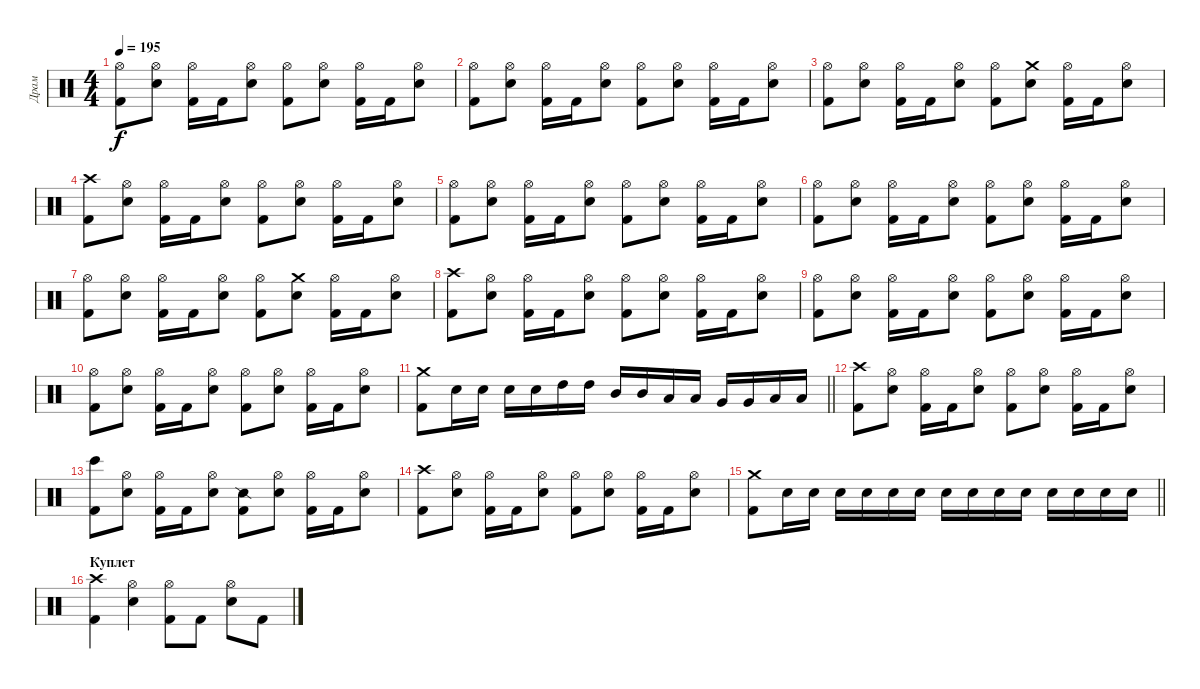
\track ("Драм" "Драм") {instrument percussion}
\staff {score}
\articulation defaults
\ts (4 4)
\tempo 195
\clef neutral
\ks c
("Hi-Hat (open)" "Kick (hit) 2").8{dy f} ("Hi-Hat (open)" "Snare (hit) 2").8 ("Hi-Hat (open)" "Kick (hit) 2").16 "Kick (hit) 2".16 ("Hi-Hat (open)" "Snare (hit) 2").8 ("Hi-Hat (open)" "Kick (hit) 2").8 ("Hi-Hat (open)" "Snare (hit) 2").8 ("Hi-Hat (open)" "Kick (hit) 2").16 "Kick (hit) 2".16 ("Hi-Hat (open)" "Snare (hit) 2").8 |
("Hi-Hat (open)" "Kick (hit) 2").8 ("Hi-Hat (open)" "Snare (hit) 2").8 ("Hi-Hat (open)" "Kick (hit) 2").16 "Kick (hit) 2".16 ("Hi-Hat (open)" "Snare (hit) 2").8 ("Hi-Hat (open)" "Kick (hit) 2").8 ("Hi-Hat (open)" "Snare (hit) 2").8 ("Hi-Hat (open)" "Kick (hit) 2").16 "Kick (hit) 2".16 ("Hi-Hat (open)" "Snare (hit) 2").8 |
("Hi-Hat (open)" "Kick (hit) 2").8 ("Hi-Hat (open)" "Snare (hit) 2").8 ("Hi-Hat (open)" "Kick (hit) 2").16 "Kick (hit) 2".16 ("Hi-Hat (open)" "Snare (hit) 2").8 ("Hi-Hat (open)" "Kick (hit) 2").8 ("Snare (hit) 2" "Crash medium (hit)").8 ("Hi-Hat (open)" "Kick (hit) 2").16 "Kick (hit) 2".16 ("Hi-Hat (open)" "Snare (hit) 2").8 |
("Kick (hit) 2" "Crash high (hit)").8 ("Hi-Hat (open)" "Snare (hit) 2").8 ("Hi-Hat (open)" "Kick (hit) 2").16 "Kick (hit) 2".16 ("Hi-Hat (open)" "Snare (hit) 2").8 ("Hi-Hat (open)" "Kick (hit) 2").8 ("Hi-Hat (open)" "Snare (hit) 2").8 ("Hi-Hat (open)" "Kick (hit) 2").16 "Kick (hit) 2".16 ("Hi-Hat (open)" "Snare (hit) 2").8 |
("Hi-Hat (open)" "Kick (hit) 2").8 ("Hi-Hat (open)" "Snare (hit) 2").8 ("Hi-Hat (open)" "Kick (hit) 2").16 "Kick (hit) 2".16 ("Hi-Hat (open)" "Snare (hit) 2").8 ("Hi-Hat (open)" "Kick (hit) 2").8 ("Hi-Hat (open)" "Snare (hit) 2").8 ("Hi-Hat (open)" "Kick (hit) 2").16 "Kick (hit) 2".16 ("Hi-Hat (open)" "Snare (hit) 2").8 |
("Hi-Hat (open)" "Kick (hit) 2").8 ("Hi-Hat (open)" "Snare (hit) 2").8 ("Hi-Hat (open)" "Kick (hit) 2").16 "Kick (hit) 2".16 ("Hi-Hat (open)" "Snare (hit) 2").8 ("Hi-Hat (open)" "Kick (hit) 2").8 ("Hi-Hat (open)" "Snare (hit) 2").8 ("Hi-Hat (open)" "Kick (hit) 2").16 "Kick (hit) 2".16 ("Hi-Hat (open)" "Snare (hit) 2").8 |
("Hi-Hat (open)" "Kick (hit) 2").8 ("Hi-Hat (open)" "Snare (hit) 2").8 ("Hi-Hat (open)" "Kick (hit) 2").16 "Kick (hit) 2".16 ("Hi-Hat (open)" "Snare (hit) 2").8 ("Hi-Hat (open)" "Kick (hit) 2").8 ("Snare (hit) 2" "Crash medium (hit)").8 ("Hi-Hat (open)" "Kick (hit) 2").16 "Kick (hit) 2".16 ("Hi-Hat (open)" "Snare (hit) 2").8 |
("Kick (hit) 2" "Crash high (hit)").8 ("Hi-Hat (open)" "Snare (hit) 2").8 ("Hi-Hat (open)" "Kick (hit) 2").16 "Kick (hit) 2".16 ("Hi-Hat (open)" "Snare (hit) 2").8 ("Hi-Hat (open)" "Kick (hit) 2").8 ("Hi-Hat (open)" "Snare (hit) 2").8 ("Hi-Hat (open)" "Kick (hit) 2").16 "Kick (hit) 2".16 ("Hi-Hat (open)" "Snare (hit) 2").8 |
("Hi-Hat (open)" "Kick (hit) 2").8 ("Hi-Hat (open)" "Snare (hit) 2").8 ("Hi-Hat (open)" "Kick (hit) 2").16 "Kick (hit) 2".16 ("Hi-Hat (open)" "Snare (hit) 2").8 ("Hi-Hat (open)" "Kick (hit) 2").8 ("Hi-Hat (open)" "Snare (hit) 2").8 ("Hi-Hat (open)" "Kick (hit) 2").16 "Kick (hit) 2".16 ("Hi-Hat (open)" "Snare (hit) 2").8 |
("Hi-Hat (open)" "Kick (hit) 2").8 ("Hi-Hat (open)" "Snare (hit) 2").8 ("Hi-Hat (open)" "Kick (hit) 2").16 "Kick (hit) 2".16 ("Hi-Hat (open)" "Snare (hit) 2").8 ("Hi-Hat (open)" "Kick (hit) 2").8 ("Hi-Hat (open)" "Snare (hit) 2").8 ("Hi-Hat (open)" "Kick (hit) 2").16 "Kick (hit) 2".16 ("Hi-Hat (open)" "Snare (hit) 2").8 |
\barLineRight lightlight
("Kick (hit) 2" "Crash medium (hit)").8 "Snare (hit) 2".16 "Snare (hit) 2".16 "Snare (hit) 2".16 "Snare (hit) 2".16 "High Tom (hit)".16 "High Tom (hit)".16 "Mid Tom (hit)".16 "Mid Tom (hit)".16 "Low Tom (hit)".16 "Low Tom (hit)".16 "Very Low Tom (hit)".16 "Very Low Tom (hit)".16 "Low Floor Tom (hit)".16 "Low Floor Tom (hit)".16 |
("Kick (hit) 2" "Crash high (hit)").8 ("Hi-Hat (open)" "Snare (hit) 2").8 ("Hi-Hat (open)" "Kick (hit) 2").16 "Kick (hit) 2".16 ("Hi-Hat (open)" "Snare (hit) 2").8 ("Hi-Hat (open)" "Kick (hit) 2").8 ("Hi-Hat (open)" "Snare (hit) 2").8 ("Hi-Hat (open)" "Kick (hit) 2").16 "Kick (hit) 2".16 ("Hi-Hat (open)" "Snare (hit) 2").8 |
("Kick (hit) 2" "Bongo High (hit)").8 ("Hi-Hat (open)" "Snare (hit) 2").8 ("Hi-Hat (open)" "Kick (hit) 2").16 "Kick (hit) 2".16 ("Hi-Hat (open)" "Snare (hit) 2").8 ("Kick (hit) 2" "Snare (side stick) 2").8 ("Hi-Hat (open)" "Snare (hit) 2").8 ("Hi-Hat (open)" "Kick (hit) 2").16 "Kick (hit) 2".16 ("Hi-Hat (open)" "Snare (hit) 2").8 |
("Kick (hit) 2" "Crash high (hit)").8 ("Hi-Hat (open)" "Snare (hit) 2").8 ("Hi-Hat (open)" "Kick (hit) 2").16 "Kick (hit) 2".16 ("Hi-Hat (open)" "Snare (hit) 2").8 ("Hi-Hat (open)" "Kick (hit) 2").8 ("Hi-Hat (open)" "Snare (hit) 2").8 ("Hi-Hat (open)" "Kick (hit) 2").16 "Kick (hit) 2".16 ("Hi-Hat (open)" "Snare (hit) 2").8 |
\barLineRight lightlight
("Kick (hit) 2" "Crash medium (hit)").8 "Snare (hit) 2".16 "Snare (hit) 2".16 "Snare (hit) 2".16 "Snare (hit) 2".16 "Snare (hit) 2".16 "Snare (hit) 2".16 "Snare (hit) 2".16 "Snare (hit) 2".16 "Snare (hit) 2".16 "Snare (hit) 2".16 "Snare (hit) 2".16 "Snare (hit) 2".16 "Snare (hit) 2".16 "Snare (hit) 2".16 |
\section ("" "Куплет")
("Kick (hit) 2" "Crash high (hit)").4 ("Hi-Hat (open)" "Snare (hit) 2").4 ("Hi-Hat (open)" "Kick (hit) 2").8 "Kick (hit) 2".8 ("Hi-Hat (open)" "Snare (hit) 2").8 "Kick (hit) 2".8
